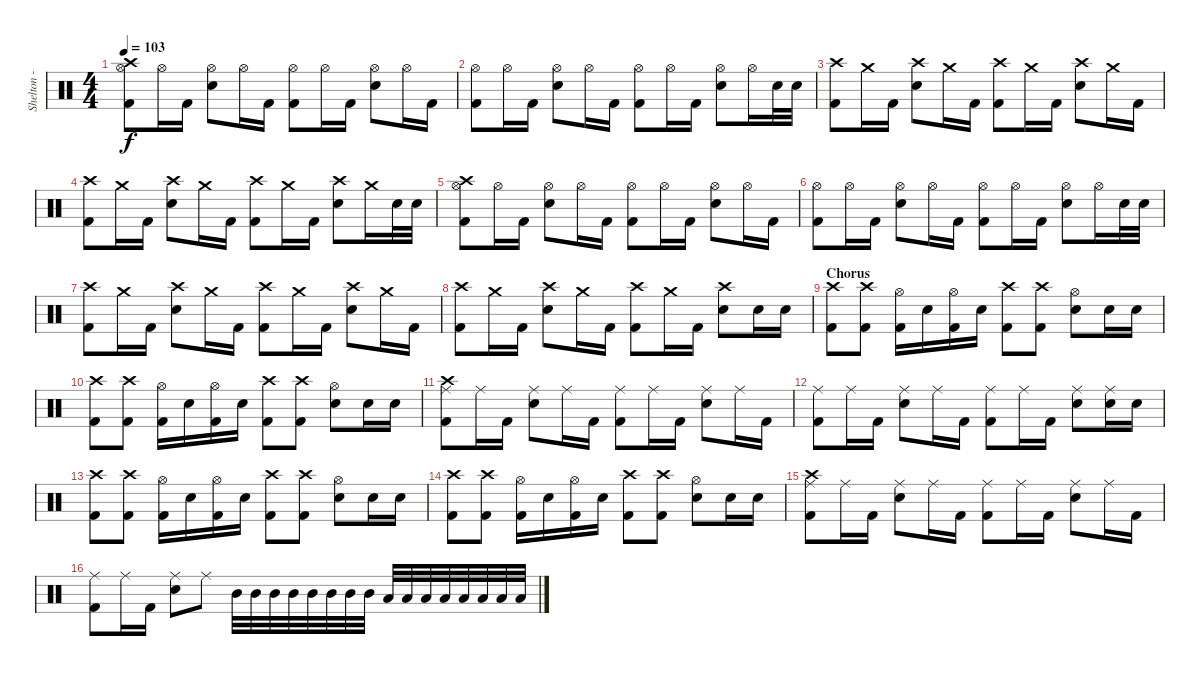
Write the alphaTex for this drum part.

\track ("Shelton - Drums" "Shelton - ") {instrument percussion}
\staff {score}
\articulation defaults
\ts (4 4)
\tempo 103
\clef neutral
\ks c
("Hi-Hat (open)" "Crash high (hit)" "Kick (hit) 2").8{dy f} "Hi-Hat (open)".16 "Kick (hit) 2".16 ("Hi-Hat (open)" "Electric Snare (hit)").8 "Hi-Hat (open)".16 "Kick (hit) 2".16 ("Hi-Hat (open)" "Kick (hit) 2").8 "Hi-Hat (open)".16 "Kick (hit) 2".16 ("Hi-Hat (open)" "Electric Snare (hit)").8 "Hi-Hat (open)".16 "Kick (hit) 2".16 |
("Hi-Hat (open)" "Kick (hit) 2").8 "Hi-Hat (open)".16 "Kick (hit) 2".16 ("Hi-Hat (open)" "Electric Snare (hit)").8 "Hi-Hat (open)".16 "Kick (hit) 2".16 ("Hi-Hat (open)" "Kick (hit) 2").8 "Hi-Hat (open)".16 "Kick (hit) 2".16 ("Hi-Hat (open)" "Electric Snare (hit)").8 "Hi-Hat (open)".16 "Electric Snare (hit)".32 "Electric Snare (hit)".32 |
("Crash high (hit)" "Kick (hit) 2").8 "Crash medium (hit)".16 "Kick (hit) 2".16 ("Crash high (hit)" "Electric Snare (hit)").8 "Crash medium (hit)".16 "Kick (hit) 2".16 ("Crash high (hit)" "Kick (hit) 2").8 "Crash medium (hit)".16 "Kick (hit) 2".16 ("Crash high (hit)" "Electric Snare (hit)").8 "Crash medium (hit)".16 "Kick (hit) 2".16 |
("Crash high (hit)" "Kick (hit) 2").8 "Crash medium (hit)".16 "Kick (hit) 2".16 ("Crash high (hit)" "Electric Snare (hit)").8 "Crash medium (hit)".16 "Kick (hit) 2".16 ("Crash high (hit)" "Kick (hit) 2").8 "Crash medium (hit)".16 "Kick (hit) 2".16 ("Crash high (hit)" "Electric Snare (hit)").8 "Crash medium (hit)".16 "Electric Snare (hit)".32 "Electric Snare (hit)".32 |
("Hi-Hat (open)" "Crash high (hit)" "Kick (hit) 2").8 "Hi-Hat (open)".16 "Kick (hit) 2".16 ("Hi-Hat (open)" "Electric Snare (hit)").8 "Hi-Hat (open)".16 "Kick (hit) 2".16 ("Hi-Hat (open)" "Kick (hit) 2").8 "Hi-Hat (open)".16 "Kick (hit) 2".16 ("Hi-Hat (open)" "Electric Snare (hit)").8 "Hi-Hat (open)".16 "Kick (hit) 2".16 |
("Hi-Hat (open)" "Kick (hit) 2").8 "Hi-Hat (open)".16 "Kick (hit) 2".16 ("Hi-Hat (open)" "Electric Snare (hit)").8 "Hi-Hat (open)".16 "Kick (hit) 2".16 ("Hi-Hat (open)" "Kick (hit) 2").8 "Hi-Hat (open)".16 "Kick (hit) 2".16 ("Hi-Hat (open)" "Electric Snare (hit)").8 "Hi-Hat (open)".16 "Electric Snare (hit)".32 "Electric Snare (hit)".32 |
("Crash high (hit)" "Kick (hit) 2").8 "Crash medium (hit)".16 "Kick (hit) 2".16 ("Crash high (hit)" "Electric Snare (hit)").8 "Crash medium (hit)".16 "Kick (hit) 2".16 ("Crash high (hit)" "Kick (hit) 2").8 "Crash medium (hit)".16 "Kick (hit) 2".16 ("Crash high (hit)" "Electric Snare (hit)").8 "Crash medium (hit)".16 "Kick (hit) 2".16 |
("Crash high (hit)" "Kick (hit) 2").8 "Crash medium (hit)".16 "Kick (hit) 2".16 ("Crash high (hit)" "Electric Snare (hit)").8 "Crash medium (hit)".16 "Kick (hit) 2".16 ("Crash high (hit)" "Kick (hit) 2").8 "Crash medium (hit)".16 "Kick (hit) 2".16 ("Crash high (hit)" "Electric Snare (hit)").8 "Electric Snare (hit)".16 "Electric Snare (hit)".16 |
\section ("" "Chorus")
("Crash high (hit)" "Kick (hit) 2").8 ("Crash high (hit)" "Kick (hit) 2").8 ("Hi-Hat (open)" "Kick (hit) 2").16 "Electric Snare (hit)".16 ("Hi-Hat (open)" "Kick (hit) 2").16 "Electric Snare (hit)".16 ("Crash high (hit)" "Kick (hit) 2").8 ("Crash high (hit)" "Kick (hit) 2").8 ("Hi-Hat (open)" "Electric Snare (hit)").8 "Electric Snare (hit)".16 "Electric Snare (hit)".16 |
("Crash high (hit)" "Kick (hit) 2").8 ("Crash high (hit)" "Kick (hit) 2").8 ("Hi-Hat (open)" "Kick (hit) 2").16 "Electric Snare (hit)".16 ("Hi-Hat (open)" "Kick (hit) 2").16 "Electric Snare (hit)".16 ("Crash high (hit)" "Kick (hit) 2").8 ("Crash high (hit)" "Kick (hit) 2").8 ("Hi-Hat (open)" "Electric Snare (hit)").8 "Electric Snare (hit)".16 "Electric Snare (hit)".16 |
("Ride (middle)" "Crash high (hit)" "Kick (hit) 2").8 "Ride (middle)".16 "Kick (hit) 2".16 ("Ride (middle)" "Electric Snare (hit)").8 "Ride (middle)".16 "Kick (hit) 2".16 ("Ride (middle)" "Kick (hit) 2").8 "Ride (middle)".16 "Kick (hit) 2".16 ("Ride (middle)" "Electric Snare (hit)").8 "Ride (middle)".16 "Kick (hit) 2".16 |
("Ride (middle)" "Kick (hit) 2").8 "Ride (middle)".16 "Kick (hit) 2".16 ("Ride (middle)" "Electric Snare (hit)").8 "Ride (middle)".16 "Kick (hit) 2".16 ("Ride (middle)" "Kick (hit) 2").8 "Ride (middle)".16 "Kick (hit) 2".16 ("Ride (middle)" "Electric Snare (hit)").8 ("Ride (middle)" "Electric Snare (hit)").16 "Electric Snare (hit)".16 |
("Crash high (hit)" "Kick (hit) 2").8 ("Crash high (hit)" "Kick (hit) 2").8 ("Hi-Hat (open)" "Kick (hit) 2").16 "Electric Snare (hit)".16 ("Hi-Hat (open)" "Kick (hit) 2").16 "Electric Snare (hit)".16 ("Crash high (hit)" "Kick (hit) 2").8 ("Crash high (hit)" "Kick (hit) 2").8 ("Hi-Hat (open)" "Electric Snare (hit)").8 "Electric Snare (hit)".16 "Electric Snare (hit)".16 |
("Crash high (hit)" "Kick (hit) 2").8 ("Crash high (hit)" "Kick (hit) 2").8 ("Hi-Hat (open)" "Kick (hit) 2").16 "Electric Snare (hit)".16 ("Hi-Hat (open)" "Kick (hit) 2").16 "Electric Snare (hit)".16 ("Crash high (hit)" "Kick (hit) 2").8 ("Crash high (hit)" "Kick (hit) 2").8 ("Hi-Hat (open)" "Electric Snare (hit)").8 "Electric Snare (hit)".16 "Electric Snare (hit)".16 |
("Ride (middle)" "Crash high (hit)" "Kick (hit) 2").8 "Ride (middle)".16 "Kick (hit) 2".16 ("Ride (middle)" "Electric Snare (hit)").8 "Ride (middle)".16 "Kick (hit) 2".16 ("Ride (middle)" "Kick (hit) 2").8 "Ride (middle)".16 "Kick (hit) 2".16 ("Ride (middle)" "Electric Snare (hit)").8 "Ride (middle)".16 "Kick (hit) 2".16 |
("Ride (middle)" "Kick (hit) 2").8 "Ride (middle)".16 "Kick (hit) 2".16 ("Ride (middle)" "Electric Snare (hit)").8 "Ride (middle)".8 "Mid Tom (hit)".32 "Mid Tom (hit)".32 "Mid Tom (hit)".32 "Mid Tom (hit)".32 "Mid Tom (hit)".32 "Mid Tom (hit)".32 "Mid Tom (hit)".32 "Mid Tom (hit)".32 "Low Tom (hit)".32 "Low Tom (hit)".32 "Low Tom (hit)".32 "Low Tom (hit)".32 "Low Tom (hit)".32 "Low Tom (hit)".32 "Low Tom (hit)".32 "Low Tom (hit)".32
